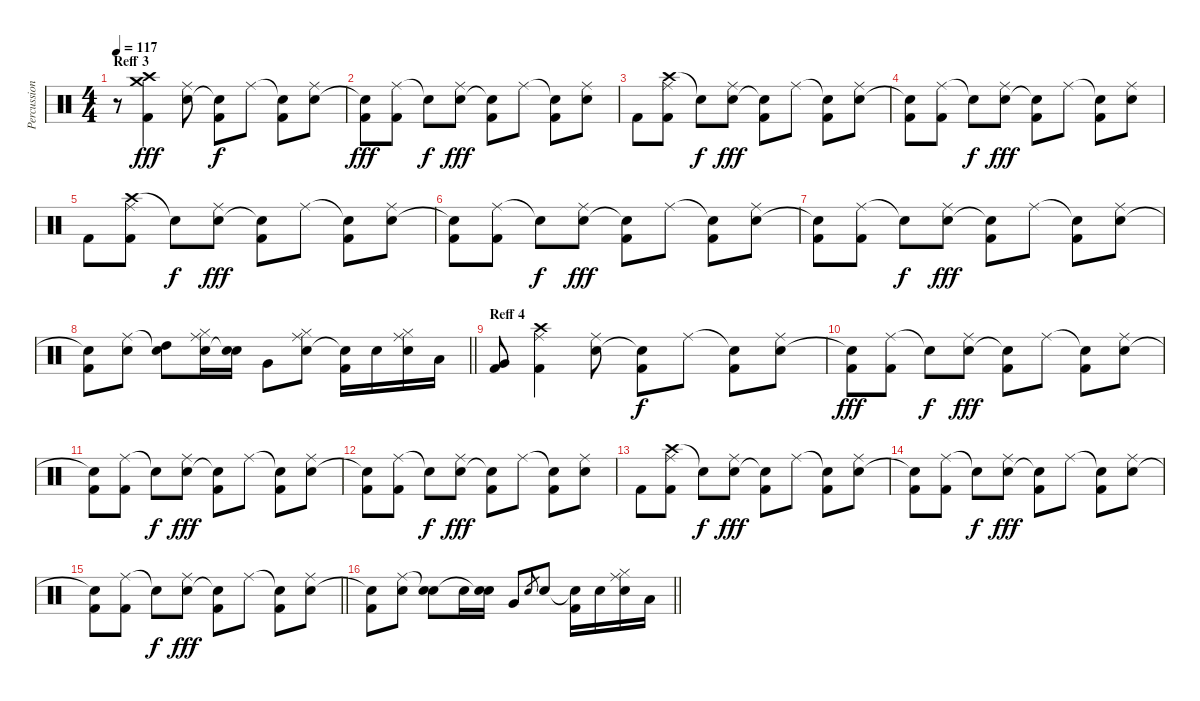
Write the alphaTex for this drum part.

\track ("Percussion 1" "Percussion") {instrument percussion}
\staff {score}
\articulation defaults
\ts (4 4)
\section ("" "Reff 3")
\tempo 117
\clef neutral
\ks c
r.8{dy fff} ("Crash high (hit)" "Crash medium (hit)" "Kick (hit) 2").4 ("Electric Snare (hit)" "Ride (middle)").8 ("Snare (hit)"{t} "Kick (hit) 2").8{dy f} "Ride (middle)".8 ("Snare (hit)"{t} "Kick (hit) 2").8 ("Electric Snare (hit)" "Ride (middle)").8 |
("Snare (hit)"{t} "Kick (hit) 2").8{dy fff} ("Ride (middle)" "Kick (hit) 2").8 "Snare (hit)"{t}.8{dy f} ("Electric Snare (hit)" "Ride (middle)").8{dy fff} ("Snare (hit)"{t} "Kick (hit) 2").8 "Ride (middle)".8 ("Snare (hit)"{t} "Kick (hit) 2").8 ("Electric Snare (hit)" "Ride (middle)").8 |
"Kick (hit) 2".8 ("Crash high (hit)" "Ride (middle)" "Kick (hit) 2").8 "Snare (hit)"{t}.8{dy f} ("Electric Snare (hit)" "Ride (middle)").8{dy fff} ("Snare (hit)"{t} "Kick (hit) 2").8 "Ride (middle)".8 ("Snare (hit)"{t} "Kick (hit) 2").8 ("Electric Snare (hit)" "Ride (middle)").8 |
("Snare (hit)"{t} "Kick (hit) 2").8 ("Ride (middle)" "Kick (hit) 2").8 "Snare (hit)"{t}.8{dy f} ("Electric Snare (hit)" "Ride (middle)").8{dy fff} ("Snare (hit)"{t} "Kick (hit) 2").8 "Ride (middle)".8 ("Snare (hit)"{t} "Kick (hit) 2").8 ("Electric Snare (hit)" "Ride (middle)").8 |
"Kick (hit) 2".8 ("Crash high (hit)" "Ride (middle)" "Kick (hit) 2").8 "Snare (hit)"{t}.8{dy f} ("Electric Snare (hit)" "Ride (middle)").8{dy fff} ("Snare (hit)"{t} "Kick (hit) 2").8 "Ride (middle)".8 ("Snare (hit)"{t} "Kick (hit) 2").8 ("Electric Snare (hit)" "Ride (middle)").8 |
("Snare (hit)"{t} "Kick (hit) 2").8 ("Ride (middle)" "Kick (hit) 2").8 "Snare (hit)"{t}.8{dy f} ("Electric Snare (hit)" "Ride (middle)").8{dy fff} ("Snare (hit)"{t} "Kick (hit) 2").8 "Ride (middle)".8 ("Snare (hit)"{t} "Kick (hit) 2").8 ("Electric Snare (hit)" "Ride (middle)").8 |
("Snare (hit)"{t} "Kick (hit) 2").8 ("Ride (middle)" "Kick (hit) 2").8 "Snare (hit)"{t}.8{dy f} ("Electric Snare (hit)" "Ride (middle)").8{dy fff} ("Snare (hit)"{t} "Kick (hit) 2").8 "Ride (middle)".8 ("Snare (hit)"{t} "Kick (hit) 2").8 ("Electric Snare (hit)" "Ride (middle)").8 |
\barLineRight lightlight
("Snare (hit)"{t} "Kick (hit) 2").8 ("Electric Snare (hit)" "Ride (middle)").8 ("High Tom (hit)" "Snare (hit)"{t}).8 ("Hi-Hat (closed)" "Electric Snare (hit)" "Ride (middle)").16 ("Electric Snare (hit)" "Snare (hit)"{t}).16 "Very Low Tom (hit)".8 ("Electric Snare (hit)" "Hi-Hat (closed)" "Ride (middle)").8 ("Snare (hit)"{t} "Kick (hit) 2").16 "Electric Snare (hit)".16 ("Electric Snare (hit)" "Hi-Hat (closed)" "Ride (middle)").16 "Low Tom (hit)".16 |
\section ("" "Reff 4")
("Very Low Tom (hit)" "Kick (hit) 2").8 ("Crash high (hit)" "Ride (middle)" "Kick (hit) 2").4 ("Electric Snare (hit)" "Ride (middle)").8 ("Snare (hit)"{t} "Kick (hit) 2").8{dy f} "Ride (middle)".8 ("Snare (hit)"{t} "Kick (hit) 2").8 ("Electric Snare (hit)" "Ride (middle)").8 |
("Snare (hit)"{t} "Kick (hit) 2").8{dy fff} ("Ride (middle)" "Kick (hit) 2").8 "Snare (hit)"{t}.8{dy f} ("Electric Snare (hit)" "Ride (middle)").8{dy fff} ("Snare (hit)"{t} "Kick (hit) 2").8 "Ride (middle)".8 ("Snare (hit)"{t} "Kick (hit) 2").8 ("Electric Snare (hit)" "Ride (middle)").8 |
("Snare (hit)"{t} "Kick (hit) 2").8 ("Ride (middle)" "Kick (hit) 2").8 "Snare (hit)"{t}.8{dy f} ("Electric Snare (hit)" "Ride (middle)").8{dy fff} ("Snare (hit)"{t} "Kick (hit) 2").8 "Ride (middle)".8 ("Snare (hit)"{t} "Kick (hit) 2").8 ("Electric Snare (hit)" "Ride (middle)").8 |
("Snare (hit)"{t} "Kick (hit) 2").8 ("Ride (middle)" "Kick (hit) 2").8 "Snare (hit)"{t}.8{dy f} ("Electric Snare (hit)" "Ride (middle)").8{dy fff} ("Snare (hit)"{t} "Kick (hit) 2").8 "Ride (middle)".8 ("Snare (hit)"{t} "Kick (hit) 2").8 ("Electric Snare (hit)" "Ride (middle)").8 |
"Kick (hit) 2".8 ("Crash high (hit)" "Ride (middle)" "Kick (hit) 2").8 "Snare (hit)"{t}.8{dy f} ("Electric Snare (hit)" "Ride (middle)").8{dy fff} ("Snare (hit)"{t} "Kick (hit) 2").8 "Ride (middle)".8 ("Snare (hit)"{t} "Kick (hit) 2").8 ("Electric Snare (hit)" "Ride (middle)").8 |
("Snare (hit)"{t} "Kick (hit) 2").8 ("Ride (middle)" "Kick (hit) 2").8 "Snare (hit)"{t}.8{dy f} ("Electric Snare (hit)" "Ride (middle)").8{dy fff} ("Snare (hit)"{t} "Kick (hit) 2").8 "Ride (middle)".8 ("Snare (hit)"{t} "Kick (hit) 2").8 ("Electric Snare (hit)" "Ride (middle)").8 |
\barLineRight lightlight
("Snare (hit)"{t} "Kick (hit) 2").8 ("Ride (middle)" "Kick (hit) 2").8 "Snare (hit)"{t}.8{dy f} ("Electric Snare (hit)" "Ride (middle)").8{dy fff} ("Snare (hit)"{t} "Kick (hit) 2").8 "Ride (middle)".8 ("Snare (hit)"{t} "Kick (hit) 2").8 ("Electric Snare (hit)" "Ride (middle)").8 |
\barLineRight lightlight
("Snare (hit)"{t} "Kick (hit) 2").8 ("Electric Snare (hit)" "Ride (middle)").8 ("Electric Snare (hit)" "Snare (hit)"{t}).8 "Electric Snare (hit)".16 ("Electric Snare (hit)" "Snare (hit)"{t}).16 "Very Low Tom (hit)".8 "Electric Snare (hit)".8{gr} "Electric Snare (hit)".8 ("Snare (hit)"{t} "Kick (hit) 2").16 "Electric Snare (hit)".16 ("Electric Snare (hit)" "Hi-Hat (closed)" "Ride (middle)").16 "Low Tom (hit)".16
